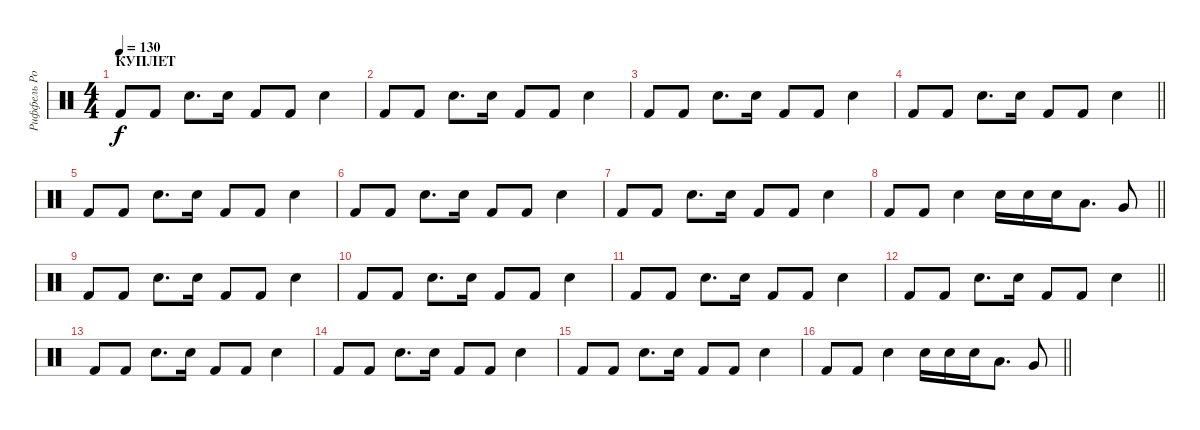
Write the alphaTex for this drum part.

\track ("Риффель Роман(Главные)" "Риффель Ро") {instrument percussion}
\staff {score}
\articulation defaults
\ts (4 4)
\section ("" "КУПЛЕТ")
\tempo 130
\clef neutral
\ks c "Kick (hit) 2".8{dy f} "Kick (hit) 2".8 "Electric Snare (hit)".8{d} "Electric Snare (hit)".16 "Kick (hit) 2".8 "Kick (hit) 2".8 "Electric Snare (hit)".4
|
"Kick (hit) 2".8 "Kick (hit) 2".8 "Electric Snare (hit)".8{d} "Electric Snare (hit)".16 "Kick (hit) 2".8 "Kick (hit) 2".8 "Electric Snare (hit)".4 |
"Kick (hit) 2".8 "Kick (hit) 2".8 "Electric Snare (hit)".8{d} "Electric Snare (hit)".16 "Kick (hit) 2".8 "Kick (hit) 2".8 "Electric Snare (hit)".4 |
\barLineRight lightlight "Kick (hit) 2".8 "Kick (hit) 2".8 "Electric Snare (hit)".8{d} "Electric Snare (hit)".16 "Kick (hit) 2".8 "Kick (hit) 2".8 "Electric Snare (hit)".4
|
"Kick (hit) 2".8 "Kick (hit) 2".8 "Electric Snare (hit)".8{d} "Electric Snare (hit)".16 "Kick (hit) 2".8 "Kick (hit) 2".8 "Electric Snare (hit)".4 |
"Kick (hit) 2".8 "Kick (hit) 2".8 "Electric Snare (hit)".8{d} "Electric Snare (hit)".16 "Kick (hit) 2".8 "Kick (hit) 2".8 "Electric Snare (hit)".4 |
"Kick (hit) 2".8 "Kick (hit) 2".8 "Electric Snare (hit)".8{d} "Electric Snare (hit)".16 "Kick (hit) 2".8 "Kick (hit) 2".8 "Electric Snare (hit)".4 |
\barLineRight lightlight "Kick (hit) 2".8 "Kick (hit) 2".8 "Electric Snare (hit)".4 "Electric Snare (hit)".16 "Electric Snare (hit)".16 "Electric Snare (hit)".16 "Low Tom (hit)".8{d} "Very Low Tom (hit)".8
|
"Kick (hit) 2".8 "Kick (hit) 2".8 "Electric Snare (hit)".8{d} "Electric Snare (hit)".16 "Kick (hit) 2".8 "Kick (hit) 2".8 "Electric Snare (hit)".4 |
"Kick (hit) 2".8 "Kick (hit) 2".8 "Electric Snare (hit)".8{d} "Electric Snare (hit)".16 "Kick (hit) 2".8 "Kick (hit) 2".8 "Electric Snare (hit)".4 |
"Kick (hit) 2".8 "Kick (hit) 2".8 "Electric Snare (hit)".8{d} "Electric Snare (hit)".16 "Kick (hit) 2".8 "Kick (hit) 2".8 "Electric Snare (hit)".4 |
\barLineRight lightlight "Kick (hit) 2".8 "Kick (hit) 2".8 "Electric Snare (hit)".8{d} "Electric Snare (hit)".16 "Kick (hit) 2".8 "Kick (hit) 2".8 "Electric Snare (hit)".4
|
"Kick (hit) 2".8 "Kick (hit) 2".8 "Electric Snare (hit)".8{d} "Electric Snare (hit)".16 "Kick (hit) 2".8 "Kick (hit) 2".8 "Electric Snare (hit)".4 |
"Kick (hit) 2".8 "Kick (hit) 2".8 "Electric Snare (hit)".8{d} "Electric Snare (hit)".16 "Kick (hit) 2".8 "Kick (hit) 2".8 "Electric Snare (hit)".4 |
"Kick (hit) 2".8 "Kick (hit) 2".8 "Electric Snare (hit)".8{d} "Electric Snare (hit)".16 "Kick (hit) 2".8 "Kick (hit) 2".8 "Electric Snare (hit)".4 |
\barLineRight lightlight "Kick (hit) 2".8 "Kick (hit) 2".8 "Electric Snare (hit)".4 "Electric Snare (hit)".16 "Electric Snare (hit)".16 "Electric Snare (hit)".16 "Low Tom (hit)".8{d} "Very Low Tom (hit)".8
